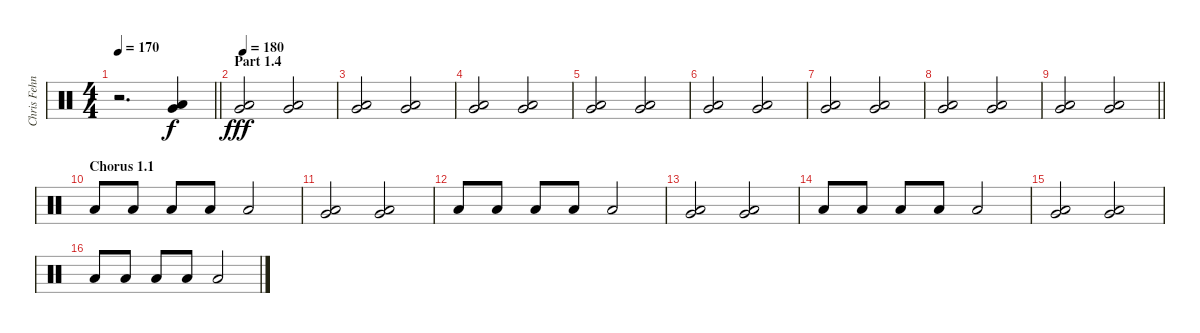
\track ("Chris Fehn" "Chris Fehn") {instrument percussion}
\staff {score}
\articulation defaults
\ts (4 4)
\tempo 170
\clef neutral
\barLineRight lightlight
\ks c
r.2{d dy f} ("Very Low Tom (hit)" "Low Floor Tom (hit)").4 |
\section ("" "Part 1.4")
\tempo 180
("Very Low Tom (hit)" "Low Floor Tom (hit)").2{dy fff} ("Very Low Tom (hit)" "Low Floor Tom (hit)").2 |
("Very Low Tom (hit)" "Low Floor Tom (hit)").2 ("Very Low Tom (hit)" "Low Floor Tom (hit)").2 |
("Very Low Tom (hit)" "Low Floor Tom (hit)").2 ("Very Low Tom (hit)" "Low Floor Tom (hit)").2 |
("Very Low Tom (hit)" "Low Floor Tom (hit)").2 ("Very Low Tom (hit)" "Low Floor Tom (hit)").2 |
("Very Low Tom (hit)" "Low Floor Tom (hit)").2 ("Very Low Tom (hit)" "Low Floor Tom (hit)").2 |
("Very Low Tom (hit)" "Low Floor Tom (hit)").2 ("Very Low Tom (hit)" "Low Floor Tom (hit)").2 |
("Very Low Tom (hit)" "Low Floor Tom (hit)").2 ("Very Low Tom (hit)" "Low Floor Tom (hit)").2 |
\barLineRight lightlight
("Very Low Tom (hit)" "Low Floor Tom (hit)").2 ("Very Low Tom (hit)" "Low Floor Tom (hit)").2 |
\section ("" "Chorus 1.1")
"Low Floor Tom (hit)".8 "Low Floor Tom (hit)".8 "Low Floor Tom (hit)".8 "Low Floor Tom (hit)".8 "Low Floor Tom (hit)".2 |
("Very Low Tom (hit)" "Low Floor Tom (hit)").2 ("Very Low Tom (hit)" "Low Floor Tom (hit)").2 |
"Low Floor Tom (hit)".8 "Low Floor Tom (hit)".8 "Low Floor Tom (hit)".8 "Low Floor Tom (hit)".8 "Low Floor Tom (hit)".2 |
("Very Low Tom (hit)" "Low Floor Tom (hit)").2 ("Very Low Tom (hit)" "Low Floor Tom (hit)").2 |
"Low Floor Tom (hit)".8 "Low Floor Tom (hit)".8 "Low Floor Tom (hit)".8 "Low Floor Tom (hit)".8 "Low Floor Tom (hit)".2 |
("Very Low Tom (hit)" "Low Floor Tom (hit)").2 ("Very Low Tom (hit)" "Low Floor Tom (hit)").2 |
"Low Floor Tom (hit)".8 "Low Floor Tom (hit)".8 "Low Floor Tom (hit)".8 "Low Floor Tom (hit)".8 "Low Floor Tom (hit)".2
